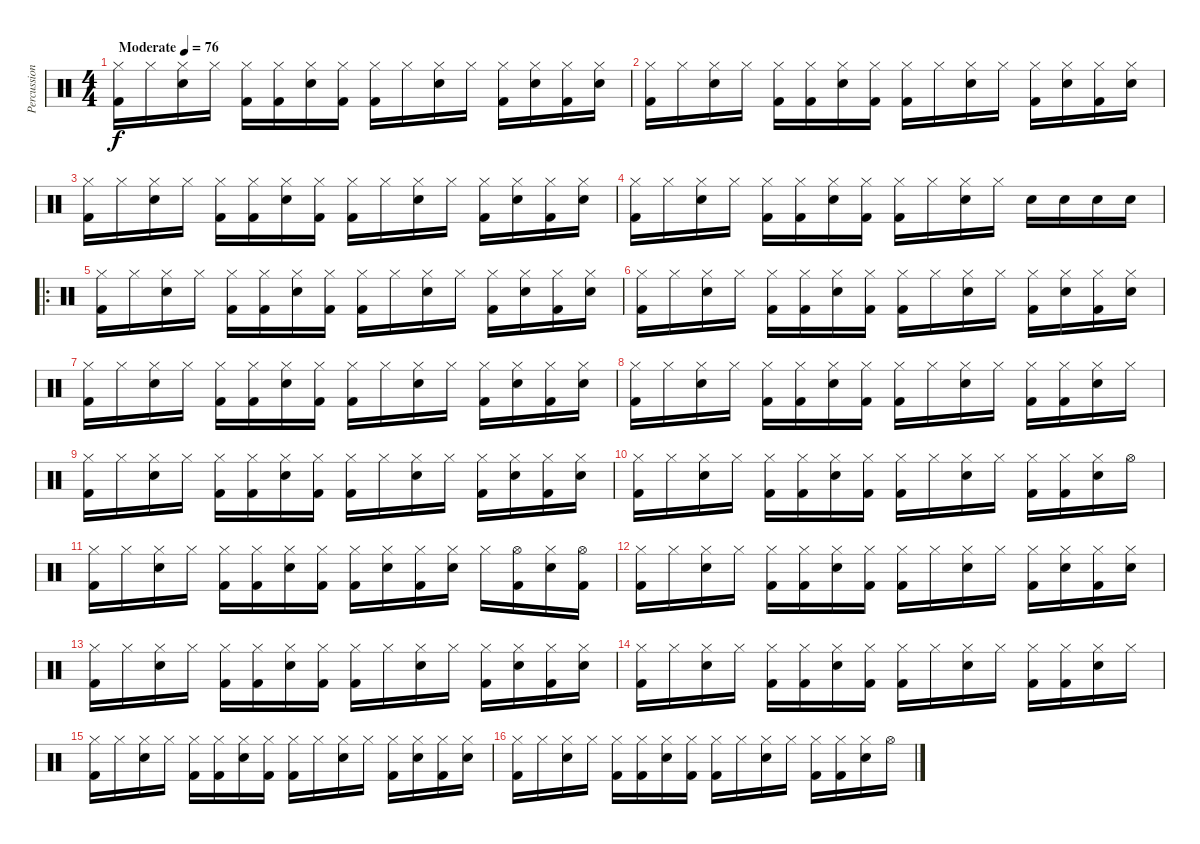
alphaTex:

\track ("Percussion" "Percussion") {instrument percussion}
\staff {score}
\articulation defaults
\ts (4 4)
\tempo (76 "Moderate")
\clef neutral
\ks c
("Hi-Hat (closed)" "Kick (hit) 2").16{dy f} "Hi-Hat (closed)".16 ("Hi-Hat (closed)" "Snare (hit) 2").16 "Hi-Hat (closed)".16 ("Hi-Hat (closed)" "Kick (hit) 2").16 ("Hi-Hat (closed)" "Kick (hit) 2").16 ("Hi-Hat (closed)" "Snare (hit) 2").16 ("Hi-Hat (closed)" "Kick (hit) 2").16 ("Hi-Hat (closed)" "Kick (hit) 2").16 "Hi-Hat (closed)".16 ("Hi-Hat (closed)" "Snare (hit) 2").16 "Hi-Hat (closed)".16 ("Hi-Hat (closed)" "Kick (hit) 2").16 ("Hi-Hat (closed)" "Snare (hit) 2").16 ("Hi-Hat (closed)" "Kick (hit) 2").16 ("Hi-Hat (closed)" "Snare (hit) 2").16 |
("Hi-Hat (closed)" "Kick (hit) 2").16 "Hi-Hat (closed)".16 ("Hi-Hat (closed)" "Snare (hit) 2").16 "Hi-Hat (closed)".16 ("Hi-Hat (closed)" "Kick (hit) 2").16 ("Hi-Hat (closed)" "Kick (hit) 2").16 ("Hi-Hat (closed)" "Snare (hit) 2").16 ("Hi-Hat (closed)" "Kick (hit) 2").16 ("Hi-Hat (closed)" "Kick (hit) 2").16 "Hi-Hat (closed)".16 ("Hi-Hat (closed)" "Snare (hit) 2").16 "Hi-Hat (closed)".16 ("Hi-Hat (closed)" "Kick (hit) 2").16 ("Hi-Hat (closed)" "Snare (hit) 2").16 ("Hi-Hat (closed)" "Kick (hit) 2").16 ("Hi-Hat (closed)" "Snare (hit) 2").16 |
("Hi-Hat (closed)" "Kick (hit) 2").16 "Hi-Hat (closed)".16 ("Hi-Hat (closed)" "Snare (hit) 2").16 "Hi-Hat (closed)".16 ("Hi-Hat (closed)" "Kick (hit) 2").16 ("Hi-Hat (closed)" "Kick (hit) 2").16 ("Hi-Hat (closed)" "Snare (hit) 2").16 ("Hi-Hat (closed)" "Kick (hit) 2").16 ("Hi-Hat (closed)" "Kick (hit) 2").16 "Hi-Hat (closed)".16 ("Hi-Hat (closed)" "Snare (hit) 2").16 "Hi-Hat (closed)".16 ("Hi-Hat (closed)" "Kick (hit) 2").16 ("Hi-Hat (closed)" "Snare (hit) 2").16 ("Hi-Hat (closed)" "Kick (hit) 2").16 ("Hi-Hat (closed)" "Snare (hit) 2").16 |
("Hi-Hat (closed)" "Kick (hit) 2").16 "Hi-Hat (closed)".16 ("Hi-Hat (closed)" "Snare (hit) 2").16 "Hi-Hat (closed)".16 ("Hi-Hat (closed)" "Kick (hit) 2").16 ("Hi-Hat (closed)" "Kick (hit) 2").16 ("Hi-Hat (closed)" "Snare (hit) 2").16 ("Hi-Hat (closed)" "Kick (hit) 2").16 ("Hi-Hat (closed)" "Kick (hit) 2").16 "Hi-Hat (closed)".16 ("Hi-Hat (closed)" "Snare (hit) 2").16 "Hi-Hat (closed)".16 "Snare (hit) 2".16 "Snare (hit) 2".16 "Snare (hit) 2".16 "Snare (hit) 2".16 |
\ro
("Hi-Hat (closed)" "Kick (hit) 2").16 "Hi-Hat (closed)".16 ("Hi-Hat (closed)" "Snare (hit) 2").16 "Hi-Hat (closed)".16 ("Hi-Hat (closed)" "Kick (hit) 2").16 ("Hi-Hat (closed)" "Kick (hit) 2").16 ("Hi-Hat (closed)" "Snare (hit) 2").16 ("Hi-Hat (closed)" "Kick (hit) 2").16 ("Hi-Hat (closed)" "Kick (hit) 2").16 "Hi-Hat (closed)".16 ("Hi-Hat (closed)" "Snare (hit) 2").16 "Hi-Hat (closed)".16 ("Hi-Hat (closed)" "Kick (hit) 2").16 ("Hi-Hat (closed)" "Snare (hit) 2").16 ("Hi-Hat (closed)" "Kick (hit) 2").16 ("Hi-Hat (closed)" "Snare (hit) 2").16 |
("Hi-Hat (closed)" "Kick (hit) 2").16 "Hi-Hat (closed)".16 ("Hi-Hat (closed)" "Snare (hit) 2").16 "Hi-Hat (closed)".16 ("Hi-Hat (closed)" "Kick (hit) 2").16 ("Hi-Hat (closed)" "Kick (hit) 2").16 ("Hi-Hat (closed)" "Snare (hit) 2").16 ("Hi-Hat (closed)" "Kick (hit) 2").16 ("Hi-Hat (closed)" "Kick (hit) 2").16 "Hi-Hat (closed)".16 ("Hi-Hat (closed)" "Snare (hit) 2").16 "Hi-Hat (closed)".16 ("Hi-Hat (closed)" "Kick (hit) 2").16 ("Hi-Hat (closed)" "Snare (hit) 2").16 ("Hi-Hat (closed)" "Kick (hit) 2").16 ("Hi-Hat (closed)" "Snare (hit) 2").16 |
("Hi-Hat (closed)" "Kick (hit) 2").16 "Hi-Hat (closed)".16 ("Hi-Hat (closed)" "Snare (hit) 2").16 "Hi-Hat (closed)".16 ("Hi-Hat (closed)" "Kick (hit) 2").16 ("Hi-Hat (closed)" "Kick (hit) 2").16 ("Hi-Hat (closed)" "Snare (hit) 2").16 ("Hi-Hat (closed)" "Kick (hit) 2").16 ("Hi-Hat (closed)" "Kick (hit) 2").16 "Hi-Hat (closed)".16 ("Hi-Hat (closed)" "Snare (hit) 2").16 "Hi-Hat (closed)".16 ("Hi-Hat (closed)" "Kick (hit) 2").16 ("Hi-Hat (closed)" "Snare (hit) 2").16 ("Hi-Hat (closed)" "Kick (hit) 2").16 ("Hi-Hat (closed)" "Snare (hit) 2").16 |
("Hi-Hat (closed)" "Kick (hit) 2").16 "Hi-Hat (closed)".16 ("Hi-Hat (closed)" "Snare (hit) 2").16 "Hi-Hat (closed)".16 ("Hi-Hat (closed)" "Kick (hit) 2").16 ("Hi-Hat (closed)" "Kick (hit) 2").16 ("Hi-Hat (closed)" "Snare (hit) 2").16 ("Hi-Hat (closed)" "Kick (hit) 2").16 ("Hi-Hat (closed)" "Kick (hit) 2").16 "Hi-Hat (closed)".16 ("Hi-Hat (closed)" "Snare (hit) 2").16 "Hi-Hat (closed)".16 ("Hi-Hat (closed)" "Kick (hit) 2").16 ("Hi-Hat (closed)" "Kick (hit) 2").16 ("Hi-Hat (closed)" "Snare (hit) 2").16 "Hi-Hat (closed)".16 |
("Hi-Hat (closed)" "Kick (hit) 2").16 "Hi-Hat (closed)".16 ("Hi-Hat (closed)" "Snare (hit) 2").16 "Hi-Hat (closed)".16 ("Hi-Hat (closed)" "Kick (hit) 2").16 ("Hi-Hat (closed)" "Kick (hit) 2").16 ("Hi-Hat (closed)" "Snare (hit) 2").16 ("Hi-Hat (closed)" "Kick (hit) 2").16 ("Hi-Hat (closed)" "Kick (hit) 2").16 "Hi-Hat (closed)".16 ("Hi-Hat (closed)" "Snare (hit) 2").16 "Hi-Hat (closed)".16 ("Hi-Hat (closed)" "Kick (hit) 2").16 ("Hi-Hat (closed)" "Snare (hit) 2").16 ("Hi-Hat (closed)" "Kick (hit) 2").16 ("Hi-Hat (closed)" "Snare (hit) 2").16 |
("Hi-Hat (closed)" "Kick (hit) 2").16 "Hi-Hat (closed)".16 ("Hi-Hat (closed)" "Snare (hit) 2").16 "Hi-Hat (closed)".16 ("Hi-Hat (closed)" "Kick (hit) 2").16 ("Hi-Hat (closed)" "Kick (hit) 2").16 ("Hi-Hat (closed)" "Snare (hit) 2").16 ("Hi-Hat (closed)" "Kick (hit) 2").16 ("Hi-Hat (closed)" "Kick (hit) 2").16 "Hi-Hat (closed)".16 ("Hi-Hat (closed)" "Snare (hit) 2").16 "Hi-Hat (closed)".16 ("Hi-Hat (closed)" "Kick (hit) 2").16 ("Hi-Hat (closed)" "Kick (hit) 2").16 ("Hi-Hat (closed)" "Snare (hit) 2").16 "Hi-Hat (open)".16 |
("Hi-Hat (closed)" "Kick (hit) 2").16 "Hi-Hat (closed)".16 ("Hi-Hat (closed)" "Snare (hit) 2").16 "Hi-Hat (closed)".16 ("Hi-Hat (closed)" "Kick (hit) 2").16 ("Hi-Hat (closed)" "Kick (hit) 2").16 ("Hi-Hat (closed)" "Snare (hit) 2").16 ("Hi-Hat (closed)" "Kick (hit) 2").16 ("Hi-Hat (closed)" "Kick (hit) 2").16 ("Hi-Hat (closed)" "Snare (hit) 2").16 ("Hi-Hat (closed)" "Kick (hit) 2").16 ("Hi-Hat (closed)" "Snare (hit) 2").16 "Hi-Hat (closed)".16 ("Hi-Hat (open)" "Kick (hit) 2").16 ("Hi-Hat (closed)" "Snare (hit) 2").16 ("Hi-Hat (open)" "Kick (hit) 2").16 |
("Hi-Hat (closed)" "Kick (hit) 2").16 "Hi-Hat (closed)".16 ("Hi-Hat (closed)" "Snare (hit) 2").16 "Hi-Hat (closed)".16 ("Hi-Hat (closed)" "Kick (hit) 2").16 ("Hi-Hat (closed)" "Kick (hit) 2").16 ("Hi-Hat (closed)" "Snare (hit) 2").16 ("Hi-Hat (closed)" "Kick (hit) 2").16 ("Hi-Hat (closed)" "Kick (hit) 2").16 "Hi-Hat (closed)".16 ("Hi-Hat (closed)" "Snare (hit) 2").16 "Hi-Hat (closed)".16 ("Hi-Hat (closed)" "Kick (hit) 2").16 ("Hi-Hat (closed)" "Snare (hit) 2").16 ("Hi-Hat (closed)" "Kick (hit) 2").16 ("Hi-Hat (closed)" "Snare (hit) 2").16 |
("Hi-Hat (closed)" "Kick (hit) 2").16 "Hi-Hat (closed)".16 ("Hi-Hat (closed)" "Snare (hit) 2").16 "Hi-Hat (closed)".16 ("Hi-Hat (closed)" "Kick (hit) 2").16 ("Hi-Hat (closed)" "Kick (hit) 2").16 ("Hi-Hat (closed)" "Snare (hit) 2").16 ("Hi-Hat (closed)" "Kick (hit) 2").16 ("Hi-Hat (closed)" "Kick (hit) 2").16 "Hi-Hat (closed)".16 ("Hi-Hat (closed)" "Snare (hit) 2").16 "Hi-Hat (closed)".16 ("Hi-Hat (closed)" "Kick (hit) 2").16 ("Hi-Hat (closed)" "Snare (hit) 2").16 ("Hi-Hat (closed)" "Kick (hit) 2").16 ("Hi-Hat (closed)" "Snare (hit) 2").16 |
("Hi-Hat (closed)" "Kick (hit) 2").16 "Hi-Hat (closed)".16 ("Hi-Hat (closed)" "Snare (hit) 2").16 "Hi-Hat (closed)".16 ("Hi-Hat (closed)" "Kick (hit) 2").16 ("Hi-Hat (closed)" "Kick (hit) 2").16 ("Hi-Hat (closed)" "Snare (hit) 2").16 ("Hi-Hat (closed)" "Kick (hit) 2").16 ("Hi-Hat (closed)" "Kick (hit) 2").16 "Hi-Hat (closed)".16 ("Hi-Hat (closed)" "Snare (hit) 2").16 "Hi-Hat (closed)".16 ("Hi-Hat (closed)" "Kick (hit) 2").16 ("Hi-Hat (closed)" "Kick (hit) 2").16 ("Hi-Hat (closed)" "Snare (hit) 2").16 "Hi-Hat (closed)".16 |
("Hi-Hat (closed)" "Kick (hit) 2").16 "Hi-Hat (closed)".16 ("Hi-Hat (closed)" "Snare (hit) 2").16 "Hi-Hat (closed)".16 ("Hi-Hat (closed)" "Kick (hit) 2").16 ("Hi-Hat (closed)" "Kick (hit) 2").16 ("Hi-Hat (closed)" "Snare (hit) 2").16 ("Hi-Hat (closed)" "Kick (hit) 2").16 ("Hi-Hat (closed)" "Kick (hit) 2").16 "Hi-Hat (closed)".16 ("Hi-Hat (closed)" "Snare (hit) 2").16 "Hi-Hat (closed)".16 ("Hi-Hat (closed)" "Kick (hit) 2").16 ("Hi-Hat (closed)" "Snare (hit) 2").16 ("Hi-Hat (closed)" "Kick (hit) 2").16 ("Hi-Hat (closed)" "Snare (hit) 2").16 |
("Hi-Hat (closed)" "Kick (hit) 2").16 "Hi-Hat (closed)".16 ("Hi-Hat (closed)" "Snare (hit) 2").16 "Hi-Hat (closed)".16 ("Hi-Hat (closed)" "Kick (hit) 2").16 ("Hi-Hat (closed)" "Kick (hit) 2").16 ("Hi-Hat (closed)" "Snare (hit) 2").16 ("Hi-Hat (closed)" "Kick (hit) 2").16 ("Hi-Hat (closed)" "Kick (hit) 2").16 "Hi-Hat (closed)".16 ("Hi-Hat (closed)" "Snare (hit) 2").16 "Hi-Hat (closed)".16 ("Hi-Hat (closed)" "Kick (hit) 2").16 ("Hi-Hat (closed)" "Kick (hit) 2").16 ("Hi-Hat (closed)" "Snare (hit) 2").16 "Hi-Hat (open)".16
